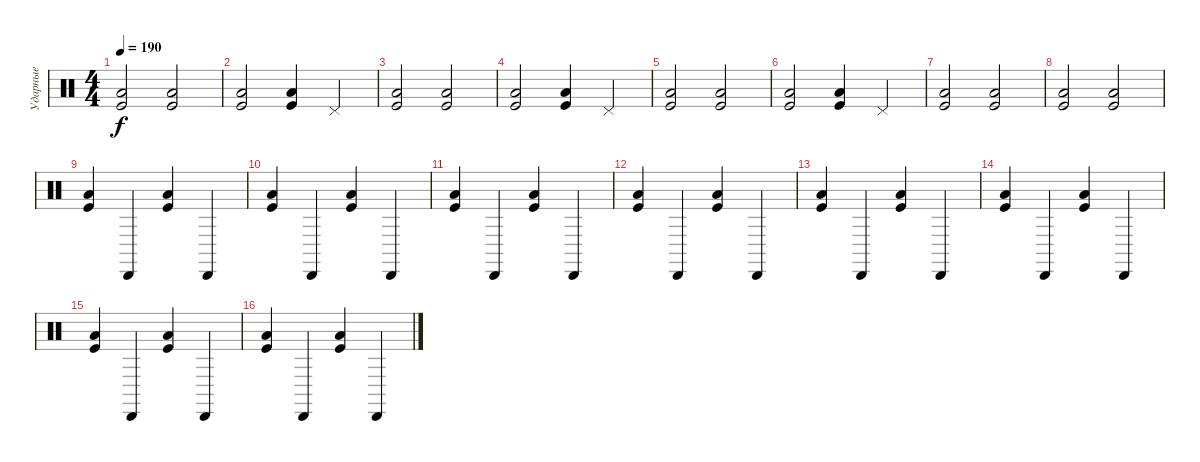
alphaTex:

\track ("Ударные" "Ударные") {instrument percussion}
\staff {score}
\articulation defaults
\ts (4 4)
\tempo 190
\clef neutral
\ks c
("Low Tom (hit)" "Kick (hit)").2{dy f} ("Low Tom (hit)" "Kick (hit)").2 |
("Low Tom (hit)" "Kick (hit)").2 ("Low Tom (hit)" "Kick (hit)").4 "Pedal Hi-Hat (hit)".4 |
("Low Tom (hit)" "Kick (hit)").2 ("Low Tom (hit)" "Kick (hit)").2 |
("Low Tom (hit)" "Kick (hit)").2 ("Low Tom (hit)" "Kick (hit)").4 "Pedal Hi-Hat (hit)".4 |
("Low Tom (hit)" "Kick (hit)").2 ("Low Tom (hit)" "Kick (hit)").2 |
("Low Tom (hit)" "Kick (hit)").2 ("Low Tom (hit)" "Kick (hit)").4 "Pedal Hi-Hat (hit)".4 |
("Low Tom (hit)" "Kick (hit)").2 ("Low Tom (hit)" "Kick (hit)").2 |
("Low Tom (hit)" "Kick (hit)").2 ("Low Tom (hit)" "Kick (hit)").2 |
("Low Tom (hit)" "Kick (hit)").4 "Cabasa (hit)".4 ("Low Tom (hit)" "Kick (hit)").4 "Cabasa (hit)".4 |
("Low Tom (hit)" "Kick (hit)").4 "Cabasa (hit)".4 ("Low Tom (hit)" "Kick (hit)").4 "Cabasa (hit)".4 |
("Low Tom (hit)" "Kick (hit)").4 "Cabasa (hit)".4 ("Low Tom (hit)" "Kick (hit)").4 "Cabasa (hit)".4 |
("Low Tom (hit)" "Kick (hit)").4 "Cabasa (hit)".4 ("Low Tom (hit)" "Kick (hit)").4 "Cabasa (hit)".4 |
("Low Tom (hit)" "Kick (hit)").4 "Cabasa (hit)".4 ("Low Tom (hit)" "Kick (hit)").4 "Cabasa (hit)".4 |
("Low Tom (hit)" "Kick (hit)").4 "Cabasa (hit)".4 ("Low Tom (hit)" "Kick (hit)").4 "Cabasa (hit)".4 |
("Low Tom (hit)" "Kick (hit)").4 "Cabasa (hit)".4 ("Low Tom (hit)" "Kick (hit)").4 "Cabasa (hit)".4 |
("Low Tom (hit)" "Kick (hit)").4 "Cabasa (hit)".4 ("Low Tom (hit)" "Kick (hit)").4 "Cabasa (hit)".4
